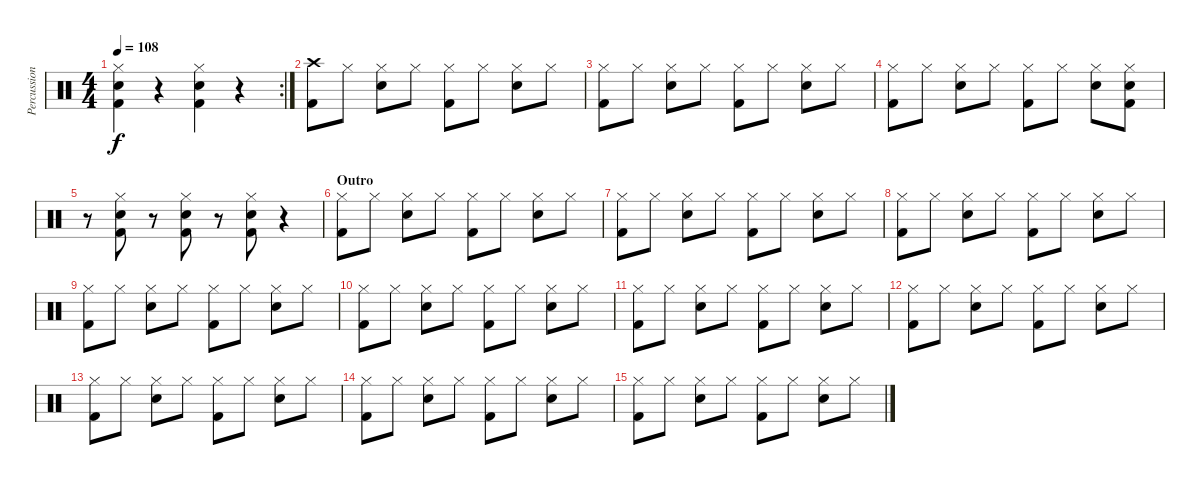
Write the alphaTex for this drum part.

\track ("Percussions" "Percussion") {instrument percussion}
\staff {score}
\articulation defaults
\rc 2
\ts (4 4)
\tempo 108
\clef neutral
\ks c
("Hi-Hat (closed)" "Snare (hit) 2" "Kick (hit) 2").4{dy f} r.4 ("Hi-Hat (closed)" "Snare (hit) 2" "Kick (hit) 2").4 r.4 |
("Crash high (hit)" "Kick (hit) 2").8 "Hi-Hat (closed)".8 ("Hi-Hat (closed)" "Snare (hit) 2").8 "Hi-Hat (closed)".8 ("Hi-Hat (closed)" "Kick (hit) 2").8 "Hi-Hat (closed)".8 ("Hi-Hat (closed)" "Snare (hit) 2").8 "Hi-Hat (closed)".8 |
("Hi-Hat (closed)" "Kick (hit) 2").8 "Hi-Hat (closed)".8 ("Hi-Hat (closed)" "Snare (hit) 2").8 "Hi-Hat (closed)".8 ("Hi-Hat (closed)" "Kick (hit) 2").8 "Hi-Hat (closed)".8 ("Hi-Hat (closed)" "Snare (hit) 2").8 "Hi-Hat (closed)".8 |
("Hi-Hat (closed)" "Kick (hit) 2").8 "Hi-Hat (closed)".8 ("Hi-Hat (closed)" "Snare (hit) 2").8 "Hi-Hat (closed)".8 ("Hi-Hat (closed)" "Kick (hit) 2").8 "Hi-Hat (closed)".8 ("Hi-Hat (closed)" "Snare (hit) 2").8 ("Hi-Hat (closed)" "Snare (hit) 2" "Kick (hit) 2").8 |
r.8 ("Hi-Hat (closed)" "Snare (hit) 2" "Kick (hit) 2").8 r.8 ("Hi-Hat (closed)" "Snare (hit) 2" "Kick (hit) 2").8 r.8 ("Hi-Hat (closed)" "Snare (hit) 2" "Kick (hit) 2").8 r.4 |
\section ("" "Outro")
("Hi-Hat (closed)" "Kick (hit) 2").8 "Hi-Hat (closed)".8 ("Hi-Hat (closed)" "Snare (hit) 2").8 "Hi-Hat (closed)".8 ("Hi-Hat (closed)" "Kick (hit) 2").8 "Hi-Hat (closed)".8 ("Hi-Hat (closed)" "Snare (hit) 2").8 "Hi-Hat (closed)".8 |
("Hi-Hat (closed)" "Kick (hit) 2").8 "Hi-Hat (closed)".8 ("Hi-Hat (closed)" "Snare (hit) 2").8 "Hi-Hat (closed)".8 ("Hi-Hat (closed)" "Kick (hit) 2").8 "Hi-Hat (closed)".8 ("Hi-Hat (closed)" "Snare (hit) 2").8 "Hi-Hat (closed)".8 |
("Hi-Hat (closed)" "Kick (hit) 2").8 "Hi-Hat (closed)".8 ("Hi-Hat (closed)" "Snare (hit) 2").8 "Hi-Hat (closed)".8 ("Hi-Hat (closed)" "Kick (hit) 2").8 "Hi-Hat (closed)".8 ("Hi-Hat (closed)" "Snare (hit) 2").8 "Hi-Hat (closed)".8 |
("Hi-Hat (closed)" "Kick (hit) 2").8 "Hi-Hat (closed)".8 ("Hi-Hat (closed)" "Snare (hit) 2").8 "Hi-Hat (closed)".8 ("Hi-Hat (closed)" "Kick (hit) 2").8 "Hi-Hat (closed)".8 ("Hi-Hat (closed)" "Snare (hit) 2").8 "Hi-Hat (closed)".8 |
("Hi-Hat (closed)" "Kick (hit) 2").8 "Hi-Hat (closed)".8 ("Hi-Hat (closed)" "Snare (hit) 2").8 "Hi-Hat (closed)".8 ("Hi-Hat (closed)" "Kick (hit) 2").8 "Hi-Hat (closed)".8 ("Hi-Hat (closed)" "Snare (hit) 2").8 "Hi-Hat (closed)".8 |
("Hi-Hat (closed)" "Kick (hit) 2").8 "Hi-Hat (closed)".8 ("Hi-Hat (closed)" "Snare (hit) 2").8 "Hi-Hat (closed)".8 ("Hi-Hat (closed)" "Kick (hit) 2").8 "Hi-Hat (closed)".8 ("Hi-Hat (closed)" "Snare (hit) 2").8 "Hi-Hat (closed)".8 |
("Hi-Hat (closed)" "Kick (hit) 2").8 "Hi-Hat (closed)".8 ("Hi-Hat (closed)" "Snare (hit) 2").8 "Hi-Hat (closed)".8 ("Hi-Hat (closed)" "Kick (hit) 2").8 "Hi-Hat (closed)".8 ("Hi-Hat (closed)" "Snare (hit) 2").8 "Hi-Hat (closed)".8 |
("Hi-Hat (closed)" "Kick (hit) 2").8 "Hi-Hat (closed)".8 ("Hi-Hat (closed)" "Snare (hit) 2").8 "Hi-Hat (closed)".8 ("Hi-Hat (closed)" "Kick (hit) 2").8 "Hi-Hat (closed)".8 ("Hi-Hat (closed)" "Snare (hit) 2").8 "Hi-Hat (closed)".8 |
("Hi-Hat (closed)" "Kick (hit) 2").8 "Hi-Hat (closed)".8 ("Hi-Hat (closed)" "Snare (hit) 2").8 "Hi-Hat (closed)".8 ("Hi-Hat (closed)" "Kick (hit) 2").8 "Hi-Hat (closed)".8 ("Hi-Hat (closed)" "Snare (hit) 2").8 "Hi-Hat (closed)".8 |
("Hi-Hat (closed)" "Kick (hit) 2").8 "Hi-Hat (closed)".8 ("Hi-Hat (closed)" "Snare (hit) 2").8 "Hi-Hat (closed)".8 ("Hi-Hat (closed)" "Kick (hit) 2").8 "Hi-Hat (closed)".8 ("Hi-Hat (closed)" "Snare (hit) 2").8 "Hi-Hat (closed)".8
